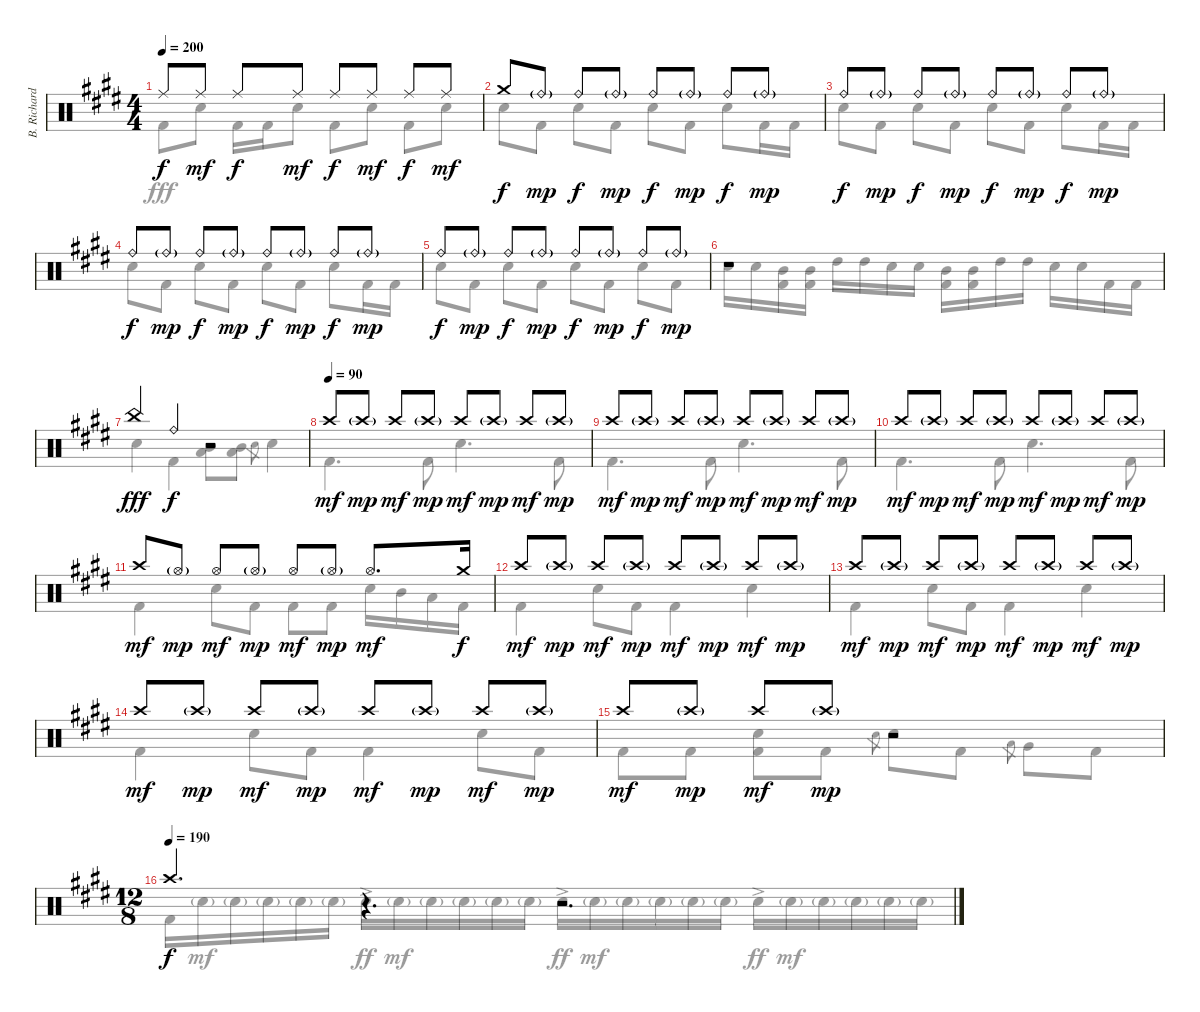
\track ("B. Richardson Drums" "B. Richard") {instrument percussion}
\staff {score}
\articulation defaults
\voice
\ts (4 4)
\tempo 200
\clef neutral
\ks c#minor "Ride (middle)".8{dy f} "Ride (middle)".8{dy mf} "Ride (middle)".8{dy f} "Ride (middle)".8{dy mf} "Ride (middle)".8{dy f} "Ride (middle)".8{dy mf} "Ride (middle)".8{dy f} "Ride (middle)".8{dy mf}
|
"Crash medium (hit)".8{dy f} "Ride (bell)"{g}.8{dy mp} "Ride (bell)".8{dy f} "Ride (bell)"{g}.8{dy mp} "Ride (bell)".8{dy f} "Ride (bell)"{g}.8{dy mp} "Ride (bell)".8{dy f} "Ride (bell)"{g}.8{dy mp} |
"Ride (bell)".8{dy f} "Ride (bell)"{g}.8{dy mp} "Ride (bell)".8{dy f} "Ride (bell)"{g}.8{dy mp} "Ride (bell)".8{dy f} "Ride (bell)"{g}.8{dy mp} "Ride (bell)".8{dy f} "Ride (bell)"{g}.8{dy mp} |
"Ride (bell)".8{dy f} "Ride (bell)"{g}.8{dy mp} "Ride (bell)".8{dy f} "Ride (bell)"{g}.8{dy mp} "Ride (bell)".8{dy f} "Ride (bell)"{g}.8{dy mp} "Ride (bell)".8{dy f} "Ride (bell)"{g}.8{dy mp} |
"Ride (bell)".8{dy f} "Ride (bell)"{g}.8{dy mp} "Ride (bell)".8{dy f} "Ride (bell)"{g}.8{dy mp} "Ride (bell)".8{dy f} "Ride (bell)"{g}.8{dy mp} "Ride (bell)".8{dy f} "Ride (bell)"{g}.8{dy mp} |
r.1 |
"China (hit)".4{dy fff} "Ride (bell)".4{dy f} r.2 |
\tempo (90)
"Crash high (hit)".8{dy mf} "Crash high (hit)"{g}.8{dy mp} "Crash high (hit)".8{dy mf} "Crash high (hit)"{g}.8{dy mp} "Crash high (hit)".8{dy mf} "Crash high (hit)"{g}.8{dy mp} "Crash high (hit)".8{dy mf} "Crash high (hit)"{g}.8{dy mp} |
"Crash high (hit)".8{dy mf} "Crash high (hit)"{g}.8{dy mp} "Crash high (hit)".8{dy mf} "Crash high (hit)"{g}.8{dy mp} "Crash high (hit)".8{dy mf} "Crash high (hit)"{g}.8{dy mp} "Crash high (hit)".8{dy mf} "Crash high (hit)"{g}.8{dy mp} |
"Crash high (hit)".8{dy mf} "Crash high (hit)"{g}.8{dy mp} "Crash high (hit)".8{dy mf} "Crash high (hit)"{g}.8{dy mp} "Crash high (hit)".8{dy mf} "Crash high (hit)"{g}.8{dy mp} "Crash high (hit)".8{dy mf} "Crash high (hit)"{g}.8{dy mp} |
"Crash high (hit)".8{dy mf} "Hi-Hat (open)"{g}.8{dy mp} "Hi-Hat (open)".8{dy mf} "Hi-Hat (open)"{g}.8{dy mp} "Hi-Hat (open)".8{dy mf} "Hi-Hat (open)"{g}.8{dy mp} "Hi-Hat (open)".8{d dy mf} "Crash medium (hit)".16{dy f} |
"Crash high (hit)".8{dy mf} "Crash high (hit)"{g}.8{dy mp} "Crash high (hit)".8{dy mf} "Crash high (hit)"{g}.8{dy mp} "Crash high (hit)".8{dy mf} "Crash high (hit)"{g}.8{dy mp} "Crash high (hit)".8{dy mf} "Crash high (hit)"{g}.8{dy mp} |
"Crash high (hit)".8{dy mf} "Crash high (hit)"{g}.8{dy mp} "Crash high (hit)".8{dy mf} "Crash high (hit)"{g}.8{dy mp} "Crash high (hit)".8{dy mf} "Crash high (hit)"{g}.8{dy mp} "Crash high (hit)".8{dy mf} "Crash high (hit)"{g}.8{dy mp} |
"Crash high (hit)".8{dy mf} "Crash high (hit)"{g}.8{dy mp} "Crash high (hit)".8{dy mf} "Crash high (hit)"{g}.8{dy mp} "Crash high (hit)".8{dy mf} "Crash high (hit)"{g}.8{dy mp} "Crash high (hit)".8{dy mf} "Crash high (hit)"{g}.8{dy mp} |
"Crash high (hit)".8{dy mf} "Crash high (hit)"{g}.8{dy mp} "Crash high (hit)".8{dy mf} "Crash high (hit)"{g}.8{dy mp} r.2 |
\ts (12 8)
\tempo (190)
"Crash high (hit)".4{d dy f} r.4{d} r.2{d}
\voice
\clef neutral
\ottava regular
\simile none
\ks c#minor "Kick (hit) 2".8{dy fff} "Electric Snare (hit)".8 "Kick (hit) 2".16 "Kick (hit) 2".16 "Electric Snare (hit)".8 "Kick (hit) 2".8 "Electric Snare (hit)".8 "Kick (hit) 2".8 "Electric Snare (hit)".8
|
"Electric Snare (hit)".8 "Kick (hit) 2".8 "Electric Snare (hit)".8 "Kick (hit) 2".8 "Electric Snare (hit)".8 "Kick (hit) 2".8 "Electric Snare (hit)".8 "Kick (hit) 2".16 "Kick (hit) 2".16 |
"Electric Snare (hit)".8 "Kick (hit) 2".8 "Electric Snare (hit)".8 "Kick (hit) 2".8 "Electric Snare (hit)".8 "Kick (hit) 2".8 "Electric Snare (hit)".8 "Kick (hit) 2".16 "Kick (hit) 2".16 |
"Electric Snare (hit)".8 "Kick (hit) 2".8 "Electric Snare (hit)".8 "Kick (hit) 2".8 "Electric Snare (hit)".8 "Kick (hit) 2".8 "Electric Snare (hit)".8 "Kick (hit) 2".16 "Kick (hit) 2".16 |
"Electric Snare (hit)".8 "Kick (hit) 2".8 "Electric Snare (hit)".8 "Kick (hit) 2".8 "Electric Snare (hit)".8 "Kick (hit) 2".8 "Electric Snare (hit)".8 "Kick (hit) 2".8 |
"Electric Snare (hit)".16 "Electric Snare (hit)".16 ("Mid Tom (hit)" "Kick (hit) 2").16 ("Mid Tom (hit)" "Kick (hit) 2").16 "High Tom (hit)".16 "High Tom (hit)".16 "Electric Snare (hit)".16 "Electric Snare (hit)".16 ("Mid Tom (hit)" "Kick (hit) 2").16 ("Mid Tom (hit)" "Kick (hit) 2").16 "High Tom (hit)".16 "High Tom (hit)".16 "Electric Snare (hit)".16 "Electric Snare (hit)".16 "Kick (hit) 2".16 "Kick (hit) 2".16 |
"Electric Snare (hit)".4 "Kick (hit) 2".4 ("Mid Tom (hit)" "Low Tom (hit)").8 ("Mid Tom (hit)" "Low Tom (hit)").8 "Electric Snare (hit)".8{gr} "Electric Snare (hit)".4 |
"Kick (hit) 2".4{d} "Kick (hit) 2".8 "Electric Snare (hit)".4{d} "Kick (hit) 2".8 |
"Kick (hit) 2".4{d} "Kick (hit) 2".8 "Electric Snare (hit)".4{d} "Kick (hit) 2".8 |
"Kick (hit) 2".4{d} "Kick (hit) 2".8 "Electric Snare (hit)".4{d} "Kick (hit) 2".8 |
"Kick (hit) 2".4 "Electric Snare (hit)".8 "Kick (hit) 2".8 "Kick (hit) 2".8 "Kick (hit) 2".8 "Electric Snare (hit)".16 "Mid Tom (hit)".16 "Low Tom (hit)".16 "Kick (hit) 2".16 |
"Kick (hit) 2".4 "Electric Snare (hit)".8 "Kick (hit) 2".8 "Kick (hit) 2".4 "Electric Snare (hit)".4 |
"Kick (hit) 2".4 "Electric Snare (hit)".8 "Kick (hit) 2".8 "Kick (hit) 2".4 "Electric Snare (hit)".4 |
"Kick (hit) 2".4 "Electric Snare (hit)".8 "Kick (hit) 2".8 "Kick (hit) 2".4 "Electric Snare (hit)".8 "Kick (hit) 2".8 |
"Kick (hit) 2".8 "Kick (hit) 2".8 ("Electric Snare (hit)" "Kick (hit) 2").8 "Kick (hit) 2".8 "Electric Snare (hit)".8{gr} "Electric Snare (hit)".8 "Kick (hit) 2".8 "Low Tom (hit)".8{gr} "Very Low Tom (hit)".8 "Kick (hit) 2".8 |
"Kick (hit) 2".16 "Electric Snare (hit)"{g}.16{dy mf} "Electric Snare (hit)"{g}.16 "Electric Snare (hit)"{g}.16 "Electric Snare (hit)"{g}.16 "Electric Snare (hit)"{g}.16 "Electric Snare (hit)"{ac}.16{dy ff} "Electric Snare (hit)"{g}.16{dy mf} "Electric Snare (hit)"{g}.16 "Electric Snare (hit)"{g}.16 "Electric Snare (hit)"{g}.16 "Electric Snare (hit)"{g}.16 "Electric Snare (hit)"{ac}.16{dy ff} "Electric Snare (hit)"{g}.16{dy mf} "Electric Snare (hit)"{g}.16 "Electric Snare (hit)"{g}.16 "Electric Snare (hit)"{g}.16 "Electric Snare (hit)"{g}.16 "Electric Snare (hit)"{ac}.16{dy ff} "Electric Snare (hit)"{g}.16{dy mf} "Electric Snare (hit)"{g}.16 "Electric Snare (hit)"{g}.16 "Electric Snare (hit)"{g}.16 "Electric Snare (hit)"{g}.16
